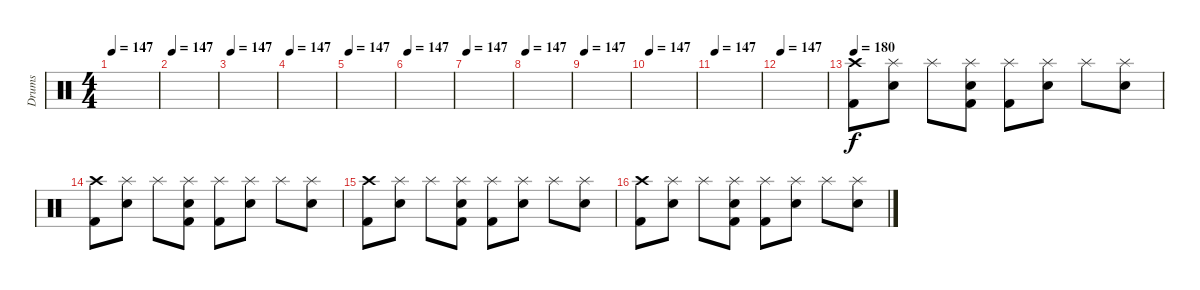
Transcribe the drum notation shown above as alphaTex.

\track ("Drums" "Drums") {instrument percussion}
\staff {score}
\articulation defaults
\ts (4 4)
\tempo 147
\clef neutral
\ks c
|
\tempo 147
|
\tempo 147
|
\tempo 147
|
\tempo 147
|
\tempo 147
|
\tempo 147
|
\tempo 147
|
\tempo 147
|
\tempo 147
|
\tempo 147
|
\tempo 147
|
\tempo 180
("Crash high (hit)" "Kick (hit) 2").8 ("Splash (hit)" "Snare (hit) 2").8 "Splash (hit)".8 ("Splash (hit)" "Snare (hit) 2" "Kick (hit) 2").8 ("Splash (hit)" "Kick (hit) 2").8 ("Splash (hit)" "Snare (hit) 2").8 "Splash (hit)".8 ("Splash (hit)" "Snare (hit) 2").8 |
("Crash high (hit)" "Kick (hit) 2").8 ("Splash (hit)" "Snare (hit) 2").8 "Splash (hit)".8 ("Splash (hit)" "Snare (hit) 2" "Kick (hit) 2").8 ("Splash (hit)" "Kick (hit) 2").8 ("Splash (hit)" "Snare (hit) 2").8 "Splash (hit)".8 ("Splash (hit)" "Snare (hit) 2").8 |
("Crash high (hit)" "Kick (hit) 2").8 ("Splash (hit)" "Snare (hit) 2").8 "Splash (hit)".8 ("Splash (hit)" "Snare (hit) 2" "Kick (hit) 2").8 ("Splash (hit)" "Kick (hit) 2").8 ("Splash (hit)" "Snare (hit) 2").8 "Splash (hit)".8 ("Splash (hit)" "Snare (hit) 2").8 |
("Crash high (hit)" "Kick (hit) 2").8 ("Splash (hit)" "Snare (hit) 2").8 "Splash (hit)".8 ("Splash (hit)" "Snare (hit) 2" "Kick (hit) 2").8 ("Splash (hit)" "Kick (hit) 2").8 ("Splash (hit)" "Snare (hit) 2").8 "Splash (hit)".8 ("Splash (hit)" "Snare (hit) 2").8
